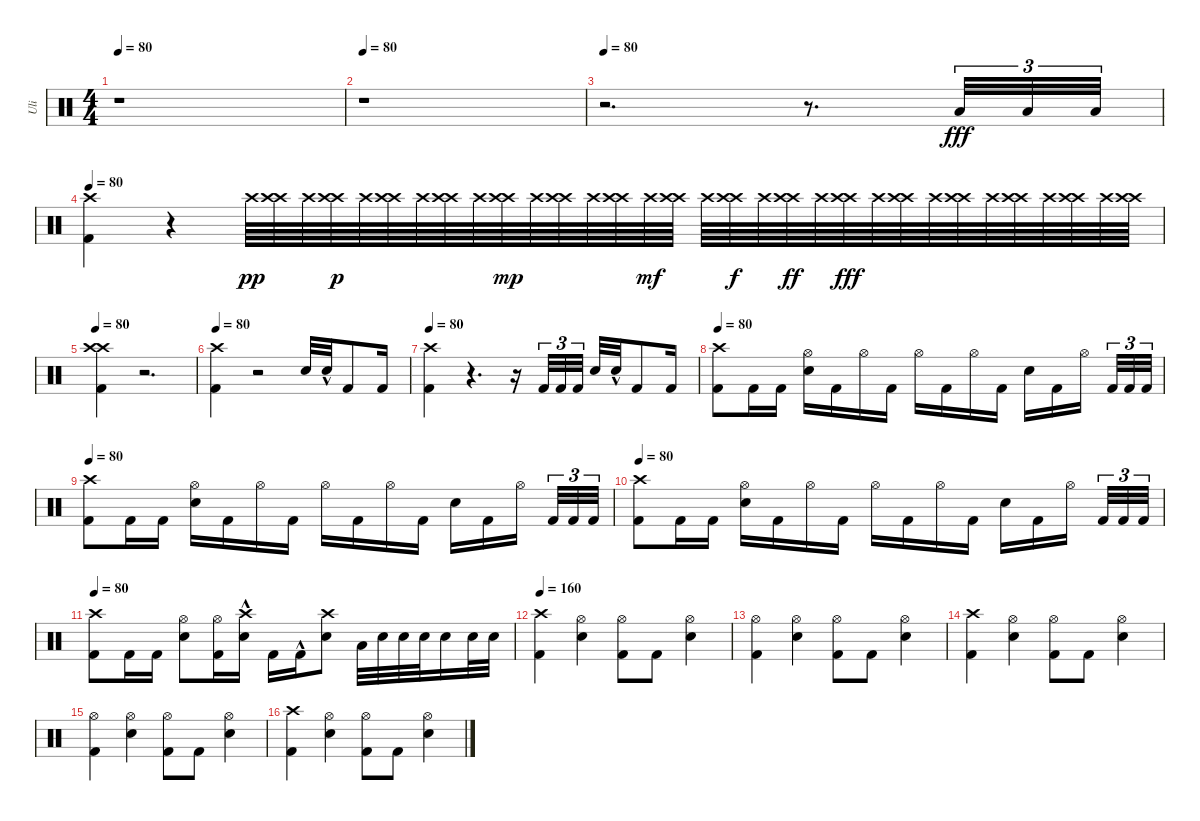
\track ("Uli" "Uli") {instrument percussion}
\staff {score}
\articulation defaults
\ts (4 4)
\tempo 80
\clef neutral
\ks c
r.1{dy fff} |
\tempo 80
r.1 |
\tempo 80
r.2{d} r.8{d} "Low Tom (hit)".32{tu (3 2)} "Low Tom (hit)".32{tu (3 2)} "Low Tom (hit)".32{tu (3 2)} |
\tempo 80
("Kick (hit) 2" "Crash high (hit)").4 r.4 "Crash high (hit)".64{dy pp} ("Crash high (hit)" "Crash high (hit)").64 "Crash high (hit)".64 ("Crash high (hit)" "Crash high (hit)").64{dy p} "Crash high (hit)".64 ("Crash high (hit)" "Crash high (hit)").64 "Crash high (hit)".64 ("Crash high (hit)" "Crash high (hit)").64 "Crash high (hit)".64 ("Crash high (hit)" "Crash high (hit)").64{dy mp} "Crash high (hit)".64 ("Crash high (hit)" "Crash high (hit)").64 "Crash high (hit)".64 ("Crash high (hit)" "Crash high (hit)").64 "Crash high (hit)".64{dy mf} ("Crash high (hit)" "Crash high (hit)").64 "Crash high (hit)".64 ("Crash high (hit)" "Crash high (hit)").64{dy f} "Crash high (hit)".64 ("Crash high (hit)" "Crash high (hit)").64{dy ff} "Crash high (hit)".64 ("Crash high (hit)" "Crash high (hit)").64{dy fff} "Crash high (hit)".64 ("Crash high (hit)" "Crash high (hit)").64 "Crash high (hit)".64 ("Crash high (hit)" "Crash high (hit)").64 "Crash high (hit)".64 ("Crash high (hit)" "Crash high (hit)").64 "Crash high (hit)".64 ("Crash high (hit)" "Crash high (hit)").64 "Crash high (hit)".64 ("Crash high (hit)" "Crash high (hit)").64 |
\tempo 80
("Crash high (hit)" "Kick (hit) 2" "Crash high (hit)").4 r.2{d} |
\tempo 80
("Kick (hit) 2" "Crash high (hit)").4 r.2 "Electric Snare (hit)".32 "Electric Snare (hit)"{hac}.32 "Kick (hit) 2".8 "Kick (hit) 2".16 |
\tempo 80
("Kick (hit) 2" "Crash high (hit)").4 r.4{d} r.16 "Kick (hit) 2".32{tu (3 2)} "Kick (hit) 2".32{tu (3 2)} "Kick (hit) 2".32{tu (3 2)} "Electric Snare (hit)".32 "Electric Snare (hit)"{hac}.32 "Kick (hit) 2".8 "Kick (hit) 2".16 |
\tempo 80
("Crash high (hit)" "Kick (hit) 2").8 "Kick (hit) 2".16 "Kick (hit) 2".16 ("Hi-Hat (open)" "Electric Snare (hit)").16 "Kick (hit) 2".16 "Hi-Hat (open)".16 "Kick (hit) 2".16 "Hi-Hat (open)".16 "Kick (hit) 2".16 "Hi-Hat (open)".16 "Kick (hit) 2".16 "Electric Snare (hit)".16 "Kick (hit) 2".16 "Hi-Hat (open)".16 "Kick (hit) 2".32{tu (3 2)} "Kick (hit) 2".32{tu (3 2)} "Kick (hit) 2".32{tu (3 2)} |
\tempo 80
("Crash high (hit)" "Kick (hit) 2").8 "Kick (hit) 2".16 "Kick (hit) 2".16 ("Hi-Hat (open)" "Electric Snare (hit)").16 "Kick (hit) 2".16 "Hi-Hat (open)".16 "Kick (hit) 2".16 "Hi-Hat (open)".16 "Kick (hit) 2".16 "Hi-Hat (open)".16 "Kick (hit) 2".16 "Electric Snare (hit)".16 "Kick (hit) 2".16 "Hi-Hat (open)".16 "Kick (hit) 2".32{tu (3 2)} "Kick (hit) 2".32{tu (3 2)} "Kick (hit) 2".32{tu (3 2)} |
\tempo 80
("Crash high (hit)" "Kick (hit) 2").8 "Kick (hit) 2".16 "Kick (hit) 2".16 ("Hi-Hat (open)" "Electric Snare (hit)").16 "Kick (hit) 2".16 "Hi-Hat (open)".16 "Kick (hit) 2".16 "Hi-Hat (open)".16 "Kick (hit) 2".16 "Hi-Hat (open)".16 "Kick (hit) 2".16 "Electric Snare (hit)".16 "Kick (hit) 2".16 "Hi-Hat (open)".16 "Kick (hit) 2".32{tu (3 2)} "Kick (hit) 2".32{tu (3 2)} "Kick (hit) 2".32{tu (3 2)} |
\tempo 80
("Crash high (hit)" "Kick (hit) 2").8 "Kick (hit) 2".16 "Kick (hit) 2".16 ("Hi-Hat (open)" "Electric Snare (hit)").8 ("Kick (hit) 2" "Hi-Hat (open)").16 ("Crash high (hit)"{hac} "Electric Snare (hit)").16 "Kick (hit) 2".16 "Kick (hit) 2"{hac}.16 ("Crash high (hit)" "Electric Snare (hit)").8 "Low Tom (hit)".32 "Electric Snare (hit)".32 "Electric Snare (hit)".32 "Electric Snare (hit)".32 "Electric Snare (hit)".16 "Electric Snare (hit)".32 "Electric Snare (hit)".32 |
\tempo 160
("Crash high (hit)" "Kick (hit) 2").4 ("Electric Snare (hit)" "Hi-Hat (open)").4 ("Hi-Hat (open)" "Kick (hit) 2").8 "Kick (hit) 2".8 ("Electric Snare (hit)" "Hi-Hat (open)").4 |
("Kick (hit) 2" "Hi-Hat (open)").4 ("Electric Snare (hit)" "Hi-Hat (open)").4 ("Hi-Hat (open)" "Kick (hit) 2").8 "Kick (hit) 2".8 ("Electric Snare (hit)" "Hi-Hat (open)").4 |
("Crash high (hit)" "Kick (hit) 2").4 ("Electric Snare (hit)" "Hi-Hat (open)").4 ("Hi-Hat (open)" "Kick (hit) 2").8 "Kick (hit) 2".8 ("Electric Snare (hit)" "Hi-Hat (open)").4 |
("Kick (hit) 2" "Hi-Hat (open)").4 ("Electric Snare (hit)" "Hi-Hat (open)").4 ("Hi-Hat (open)" "Kick (hit) 2").8 "Kick (hit) 2".8 ("Electric Snare (hit)" "Hi-Hat (open)").4 |
("Crash high (hit)" "Kick (hit) 2").4 ("Electric Snare (hit)" "Hi-Hat (open)").4 ("Hi-Hat (open)" "Kick (hit) 2").8 "Kick (hit) 2".8 ("Electric Snare (hit)" "Hi-Hat (open)").4
